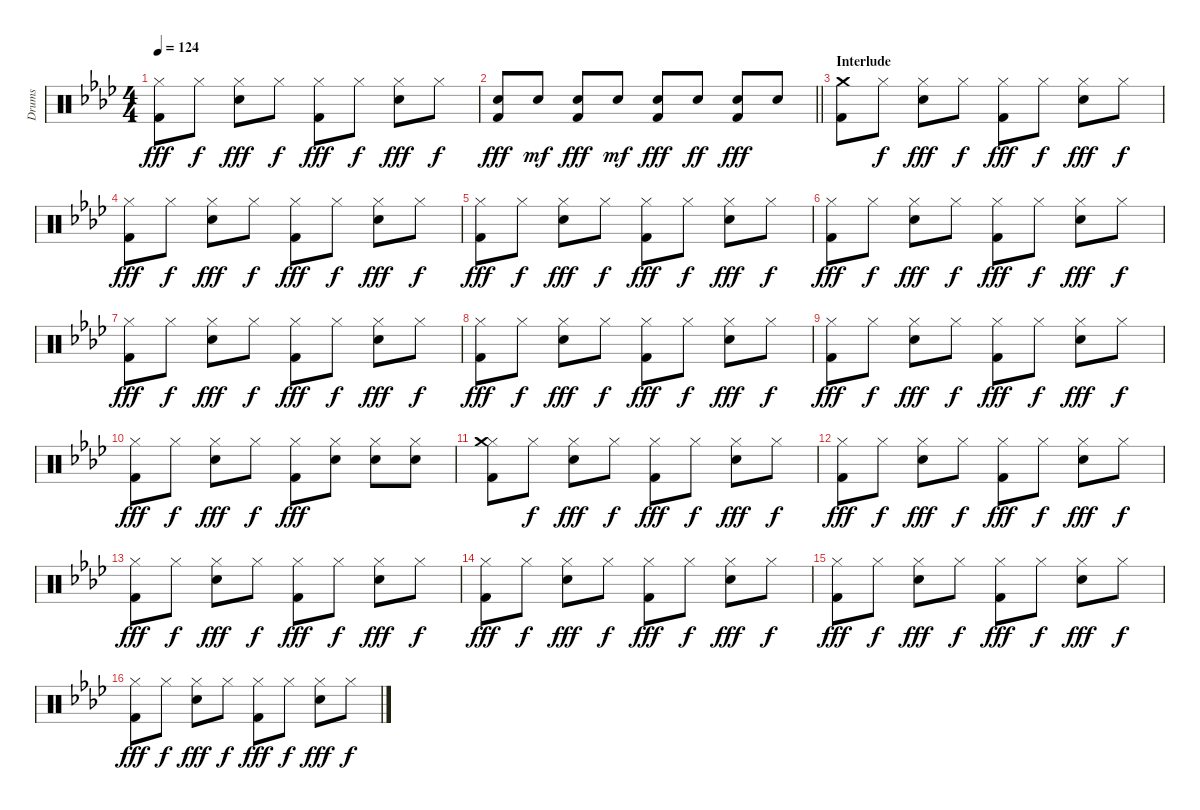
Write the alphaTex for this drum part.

\track ("Drums" "Drums") {instrument percussion}
\staff {score}
\articulation defaults
\ts (4 4)
\tempo 124
\clef neutral
\ks ab
("Hi-Hat (closed)" "Kick (hit) 2").8{dy fff} "Hi-Hat (closed)".8{dy f} ("Hi-Hat (closed)" "Snare (hit) 2").8{dy fff} "Hi-Hat (closed)".8{dy f} ("Hi-Hat (closed)" "Kick (hit) 2").8{dy fff} "Hi-Hat (closed)".8{dy f} ("Hi-Hat (closed)" "Snare (hit) 2").8{dy fff} "Hi-Hat (closed)".8{dy f} |
\barLineRight lightlight
("Snare (hit) 2" "Kick (hit) 2").8{dy fff} "Snare (hit) 2".8{dy mf} ("Snare (hit) 2" "Kick (hit) 2").8{dy fff} "Snare (hit) 2".8{dy mf} ("Snare (hit) 2" "Kick (hit) 2").8{dy fff} "Snare (hit) 2".8{dy ff} ("Snare (hit) 2" "Kick (hit) 2").8{dy fff} "Snare (hit) 2".8 |
\section ("" "Interlude")
("Crash medium (hit)" "Kick (hit) 2").8 "Hi-Hat (closed)".8{dy f} ("Hi-Hat (closed)" "Snare (hit) 2").8{dy fff} "Hi-Hat (closed)".8{dy f} ("Hi-Hat (closed)" "Kick (hit) 2").8{dy fff} "Hi-Hat (closed)".8{dy f} ("Hi-Hat (closed)" "Snare (hit) 2").8{dy fff} "Hi-Hat (closed)".8{dy f} |
("Hi-Hat (closed)" "Kick (hit) 2").8{dy fff} "Hi-Hat (closed)".8{dy f} ("Hi-Hat (closed)" "Snare (hit) 2").8{dy fff} "Hi-Hat (closed)".8{dy f} ("Hi-Hat (closed)" "Kick (hit) 2").8{dy fff} "Hi-Hat (closed)".8{dy f} ("Hi-Hat (closed)" "Snare (hit) 2").8{dy fff} "Hi-Hat (closed)".8{dy f} |
("Hi-Hat (closed)" "Kick (hit) 2").8{dy fff} "Hi-Hat (closed)".8{dy f} ("Hi-Hat (closed)" "Snare (hit) 2").8{dy fff} "Hi-Hat (closed)".8{dy f} ("Hi-Hat (closed)" "Kick (hit) 2").8{dy fff} "Hi-Hat (closed)".8{dy f} ("Hi-Hat (closed)" "Snare (hit) 2").8{dy fff} "Hi-Hat (closed)".8{dy f} |
("Hi-Hat (closed)" "Kick (hit) 2").8{dy fff} "Hi-Hat (closed)".8{dy f} ("Hi-Hat (closed)" "Snare (hit) 2").8{dy fff} "Hi-Hat (closed)".8{dy f} ("Hi-Hat (closed)" "Kick (hit) 2").8{dy fff} "Hi-Hat (closed)".8{dy f} ("Hi-Hat (closed)" "Snare (hit) 2").8{dy fff} "Hi-Hat (closed)".8{dy f} |
("Hi-Hat (closed)" "Kick (hit) 2").8{dy fff} "Hi-Hat (closed)".8{dy f} ("Hi-Hat (closed)" "Snare (hit) 2").8{dy fff} "Hi-Hat (closed)".8{dy f} ("Hi-Hat (closed)" "Kick (hit) 2").8{dy fff} "Hi-Hat (closed)".8{dy f} ("Hi-Hat (closed)" "Snare (hit) 2").8{dy fff} "Hi-Hat (closed)".8{dy f} |
("Hi-Hat (closed)" "Kick (hit) 2").8{dy fff} "Hi-Hat (closed)".8{dy f} ("Hi-Hat (closed)" "Snare (hit) 2").8{dy fff} "Hi-Hat (closed)".8{dy f} ("Hi-Hat (closed)" "Kick (hit) 2").8{dy fff} "Hi-Hat (closed)".8{dy f} ("Hi-Hat (closed)" "Snare (hit) 2").8{dy fff} "Hi-Hat (closed)".8{dy f} |
("Hi-Hat (closed)" "Kick (hit) 2").8{dy fff} "Hi-Hat (closed)".8{dy f} ("Hi-Hat (closed)" "Snare (hit) 2").8{dy fff} "Hi-Hat (closed)".8{dy f} ("Hi-Hat (closed)" "Kick (hit) 2").8{dy fff} "Hi-Hat (closed)".8{dy f} ("Hi-Hat (closed)" "Snare (hit) 2").8{dy fff} "Hi-Hat (closed)".8{dy f} |
("Hi-Hat (closed)" "Kick (hit) 2").8{dy fff} "Hi-Hat (closed)".8{dy f} ("Hi-Hat (closed)" "Snare (hit) 2").8{dy fff} "Hi-Hat (closed)".8{dy f} ("Hi-Hat (closed)" "Kick (hit) 2").8{dy fff} ("Hi-Hat (closed)" "Snare (hit) 2").8 ("Hi-Hat (closed)" "Snare (hit) 2").8 ("Hi-Hat (closed)" "Snare (hit) 2").8 |
("Hi-Hat (closed)" "Crash medium (hit)" "Kick (hit) 2").8 "Hi-Hat (closed)".8{dy f} ("Hi-Hat (closed)" "Snare (hit) 2").8{dy fff} "Hi-Hat (closed)".8{dy f} ("Hi-Hat (closed)" "Kick (hit) 2").8{dy fff} "Hi-Hat (closed)".8{dy f} ("Hi-Hat (closed)" "Snare (hit) 2").8{dy fff} "Hi-Hat (closed)".8{dy f} |
("Hi-Hat (closed)" "Kick (hit) 2").8{dy fff} "Hi-Hat (closed)".8{dy f} ("Hi-Hat (closed)" "Snare (hit) 2").8{dy fff} "Hi-Hat (closed)".8{dy f} ("Hi-Hat (closed)" "Kick (hit) 2").8{dy fff} "Hi-Hat (closed)".8{dy f} ("Hi-Hat (closed)" "Snare (hit) 2").8{dy fff} "Hi-Hat (closed)".8{dy f} |
("Hi-Hat (closed)" "Kick (hit) 2").8{dy fff} "Hi-Hat (closed)".8{dy f} ("Hi-Hat (closed)" "Snare (hit) 2").8{dy fff} "Hi-Hat (closed)".8{dy f} ("Hi-Hat (closed)" "Kick (hit) 2").8{dy fff} "Hi-Hat (closed)".8{dy f} ("Hi-Hat (closed)" "Snare (hit) 2").8{dy fff} "Hi-Hat (closed)".8{dy f} |
("Hi-Hat (closed)" "Kick (hit) 2").8{dy fff} "Hi-Hat (closed)".8{dy f} ("Hi-Hat (closed)" "Snare (hit) 2").8{dy fff} "Hi-Hat (closed)".8{dy f} ("Hi-Hat (closed)" "Kick (hit) 2").8{dy fff} "Hi-Hat (closed)".8{dy f} ("Hi-Hat (closed)" "Snare (hit) 2").8{dy fff} "Hi-Hat (closed)".8{dy f} |
("Hi-Hat (closed)" "Kick (hit) 2").8{dy fff} "Hi-Hat (closed)".8{dy f} ("Hi-Hat (closed)" "Snare (hit) 2").8{dy fff} "Hi-Hat (closed)".8{dy f} ("Hi-Hat (closed)" "Kick (hit) 2").8{dy fff} "Hi-Hat (closed)".8{dy f} ("Hi-Hat (closed)" "Snare (hit) 2").8{dy fff} "Hi-Hat (closed)".8{dy f} |
("Hi-Hat (closed)" "Kick (hit) 2").8{dy fff} "Hi-Hat (closed)".8{dy f} ("Hi-Hat (closed)" "Snare (hit) 2").8{dy fff} "Hi-Hat (closed)".8{dy f} ("Hi-Hat (closed)" "Kick (hit) 2").8{dy fff} "Hi-Hat (closed)".8{dy f} ("Hi-Hat (closed)" "Snare (hit) 2").8{dy fff} "Hi-Hat (closed)".8{dy f}
